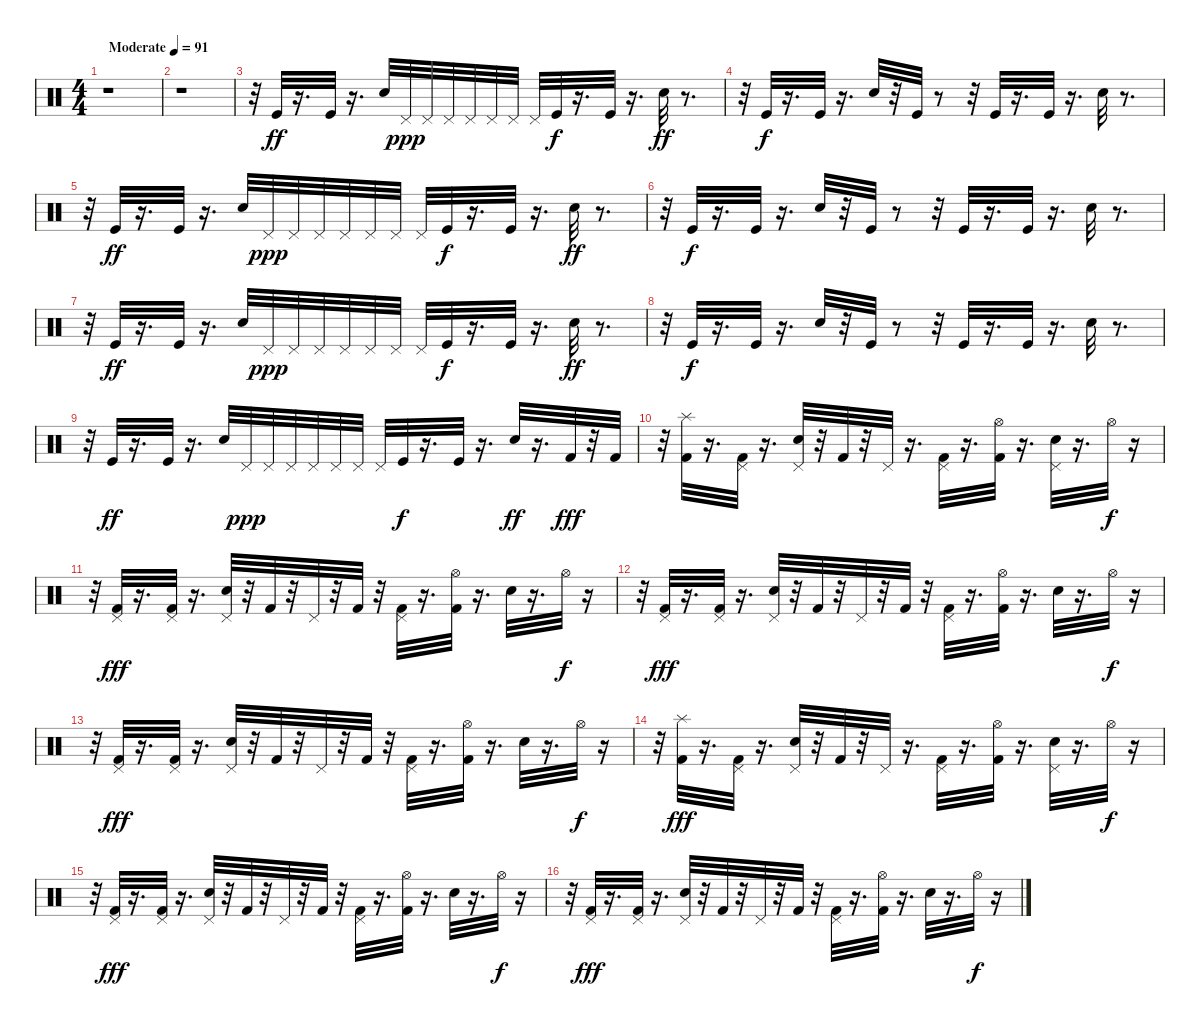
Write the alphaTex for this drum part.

\track "" {instrument percussion}
\staff {score}
\articulation defaults
\ts (4 4)
\tempo (91 "Moderate")
\clef neutral
\ks c
r.1{dy ff} |
r.1 |
r.32 "Kick (hit)".32 r.16{d} "Kick (hit)".32 r.16{d} "Electric Snare (hit)".32 "Pedal Hi-Hat (hit)".32{dy ppp} "Pedal Hi-Hat (hit)".32 "Pedal Hi-Hat (hit)".32 "Pedal Hi-Hat (hit)".32 "Pedal Hi-Hat (hit)".32 "Pedal Hi-Hat (hit)".32 "Pedal Hi-Hat (hit)".32 "Kick (hit)".32{dy f} r.16{d} "Kick (hit)".32 r.16{d} "Electric Snare (hit)".32{dy ff} r.8{d} |
r.32 "Kick (hit)".32{dy f} r.16{d} "Kick (hit)".32 r.16{d} "Electric Snare (hit)".32 r.32 "Kick (hit)".32 r.8 r.32 "Kick (hit)".32 r.16{d} "Kick (hit)".32 r.16{d} "Electric Snare (hit)".32 r.8{d} |
r.32 "Kick (hit)".32{dy ff} r.16{d} "Kick (hit)".32 r.16{d} "Electric Snare (hit)".32 "Pedal Hi-Hat (hit)".32{dy ppp} "Pedal Hi-Hat (hit)".32 "Pedal Hi-Hat (hit)".32 "Pedal Hi-Hat (hit)".32 "Pedal Hi-Hat (hit)".32 "Pedal Hi-Hat (hit)".32 "Pedal Hi-Hat (hit)".32 "Kick (hit)".32{dy f} r.16{d} "Kick (hit)".32 r.16{d} "Electric Snare (hit)".32{dy ff} r.8{d} |
r.32 "Kick (hit)".32{dy f} r.16{d} "Kick (hit)".32 r.16{d} "Electric Snare (hit)".32 r.32 "Kick (hit)".32 r.8 r.32 "Kick (hit)".32 r.16{d} "Kick (hit)".32 r.16{d} "Electric Snare (hit)".32 r.8{d} |
r.32 "Kick (hit)".32{dy ff} r.16{d} "Kick (hit)".32 r.16{d} "Electric Snare (hit)".32 "Pedal Hi-Hat (hit)".32{dy ppp} "Pedal Hi-Hat (hit)".32 "Pedal Hi-Hat (hit)".32 "Pedal Hi-Hat (hit)".32 "Pedal Hi-Hat (hit)".32 "Pedal Hi-Hat (hit)".32 "Pedal Hi-Hat (hit)".32 "Kick (hit)".32{dy f} r.16{d} "Kick (hit)".32 r.16{d} "Electric Snare (hit)".32{dy ff} r.8{d} |
r.32 "Kick (hit)".32{dy f} r.16{d} "Kick (hit)".32 r.16{d} "Electric Snare (hit)".32 r.32 "Kick (hit)".32 r.8 r.32 "Kick (hit)".32 r.16{d} "Kick (hit)".32 r.16{d} "Electric Snare (hit)".32 r.8{d} |
r.32 "Kick (hit)".32{dy ff} r.16{d} "Kick (hit)".32 r.16{d} "Electric Snare (hit)".32 "Pedal Hi-Hat (hit)".32{dy ppp} "Pedal Hi-Hat (hit)".32 "Pedal Hi-Hat (hit)".32 "Pedal Hi-Hat (hit)".32 "Pedal Hi-Hat (hit)".32 "Pedal Hi-Hat (hit)".32 "Pedal Hi-Hat (hit)".32 "Kick (hit)".32{dy f} r.16{d} "Kick (hit)".32 r.16{d} "Electric Snare (hit)".32{dy ff} r.16{d} "Kick (hit) 2".32{dy fff} r.32 "Kick (hit) 2".32 |
r.32 ("Splash (hit)" "Kick (hit) 2").32 r.16{d} ("Kick (hit) 2" "Pedal Hi-Hat (hit)").32 r.16{d} ("Pedal Hi-Hat (hit)" "Snare (hit) 2").32 r.32 "Kick (hit) 2".32 r.32 "Pedal Hi-Hat (hit)".32 r.16{d} ("Pedal Hi-Hat (hit)" "Kick (hit) 2").32 r.16{d} ("Kick (hit) 2" "Hi-Hat (open)").32 r.16{d} ("Pedal Hi-Hat (hit)" "Snare (hit) 2").32 r.16{d} "Hi-Hat (open)".32{dy f} r.16 |
r.32 ("Pedal Hi-Hat (hit)" "Kick (hit) 2").32{dy fff} r.16{d} ("Pedal Hi-Hat (hit)" "Kick (hit) 2").32 r.16{d} ("Pedal Hi-Hat (hit)" "Snare (hit) 2").32 r.32 "Kick (hit) 2".32 r.32 "Pedal Hi-Hat (hit)".32 r.32 "Kick (hit) 2".32 r.32 ("Pedal Hi-Hat (hit)" "Kick (hit) 2").32 r.16{d} ("Kick (hit) 2" "Hi-Hat (open)").32 r.16{d} "Snare (hit) 2".32 r.16{d} "Hi-Hat (open)".32{dy f} r.16 |
r.32 ("Pedal Hi-Hat (hit)" "Kick (hit) 2").32{dy fff} r.16{d} ("Pedal Hi-Hat (hit)" "Kick (hit) 2").32 r.16{d} ("Pedal Hi-Hat (hit)" "Snare (hit) 2").32 r.32 "Kick (hit) 2".32 r.32 "Pedal Hi-Hat (hit)".32 r.32 "Kick (hit) 2".32 r.32 ("Pedal Hi-Hat (hit)" "Kick (hit) 2").32 r.16{d} ("Kick (hit) 2" "Hi-Hat (open)").32 r.16{d} "Snare (hit) 2".32 r.16{d} "Hi-Hat (open)".32{dy f} r.16 |
r.32 ("Pedal Hi-Hat (hit)" "Kick (hit) 2").32{dy fff} r.16{d} ("Pedal Hi-Hat (hit)" "Kick (hit) 2").32 r.16{d} ("Pedal Hi-Hat (hit)" "Snare (hit) 2").32 r.32 "Kick (hit) 2".32 r.32 "Pedal Hi-Hat (hit)".32 r.32 "Kick (hit) 2".32 r.32 ("Pedal Hi-Hat (hit)" "Kick (hit) 2").32 r.16{d} ("Kick (hit) 2" "Hi-Hat (open)").32 r.16{d} "Snare (hit) 2".32 r.16{d} "Hi-Hat (open)".32{dy f} r.16 |
r.32 ("Splash (hit)" "Kick (hit) 2").32{dy fff} r.16{d} ("Kick (hit) 2" "Pedal Hi-Hat (hit)").32 r.16{d} ("Pedal Hi-Hat (hit)" "Snare (hit) 2").32 r.32 "Kick (hit) 2".32 r.32 "Pedal Hi-Hat (hit)".32 r.16{d} ("Pedal Hi-Hat (hit)" "Kick (hit) 2").32 r.16{d} ("Kick (hit) 2" "Hi-Hat (open)").32 r.16{d} ("Pedal Hi-Hat (hit)" "Snare (hit) 2").32 r.16{d} "Hi-Hat (open)".32{dy f} r.16 |
r.32 ("Pedal Hi-Hat (hit)" "Kick (hit) 2").32{dy fff} r.16{d} ("Pedal Hi-Hat (hit)" "Kick (hit) 2").32 r.16{d} ("Pedal Hi-Hat (hit)" "Snare (hit) 2").32 r.32 "Kick (hit) 2".32 r.32 "Pedal Hi-Hat (hit)".32 r.32 "Kick (hit) 2".32 r.32 ("Pedal Hi-Hat (hit)" "Kick (hit) 2").32 r.16{d} ("Kick (hit) 2" "Hi-Hat (open)").32 r.16{d} "Snare (hit) 2".32 r.16{d} "Hi-Hat (open)".32{dy f} r.16 |
r.32 ("Pedal Hi-Hat (hit)" "Kick (hit) 2").32{dy fff} r.16{d} ("Pedal Hi-Hat (hit)" "Kick (hit) 2").32 r.16{d} ("Pedal Hi-Hat (hit)" "Snare (hit) 2").32 r.32 "Kick (hit) 2".32 r.32 "Pedal Hi-Hat (hit)".32 r.32 "Kick (hit) 2".32 r.32 ("Pedal Hi-Hat (hit)" "Kick (hit) 2").32 r.16{d} ("Kick (hit) 2" "Hi-Hat (open)").32 r.16{d} "Snare (hit) 2".32 r.16{d} "Hi-Hat (open)".32{dy f} r.16
